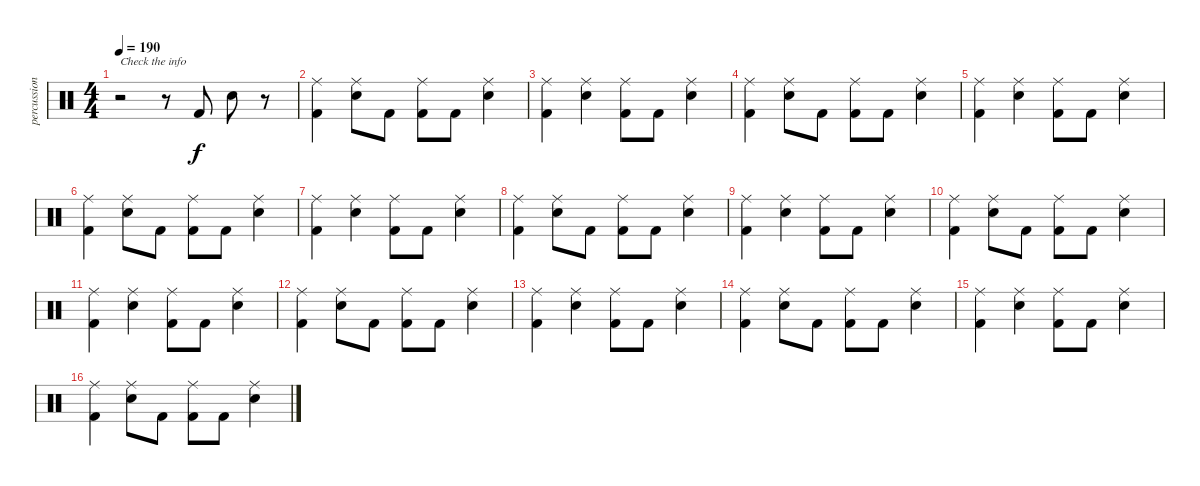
\track ("percussion" "percussion") {instrument percussion}
\staff {score}
\articulation defaults
\ts (4 4)
\tempo 190
\clef neutral
\ks c
r.2{txt "Check the info" dy f} r.8 "Kick (hit) 2".8 "Snare (hit) 2".8 r.8 |
("Ride (middle)" "Kick (hit) 2").4 ("Ride (middle)" "Snare (hit) 2").8 "Kick (hit) 2".8 ("Ride (middle)" "Kick (hit) 2").8 "Kick (hit) 2".8 ("Ride (middle)" "Snare (hit) 2").4 |
("Ride (middle)" "Kick (hit) 2").4 ("Ride (middle)" "Snare (hit) 2").4 ("Ride (middle)" "Kick (hit) 2").8 "Kick (hit) 2".8 ("Ride (middle)" "Snare (hit) 2").4 |
("Ride (middle)" "Kick (hit) 2").4 ("Ride (middle)" "Snare (hit) 2").8 "Kick (hit) 2".8 ("Ride (middle)" "Kick (hit) 2").8 "Kick (hit) 2".8 ("Ride (middle)" "Snare (hit) 2").4 |
("Ride (middle)" "Kick (hit) 2").4 ("Ride (middle)" "Snare (hit) 2").4 ("Ride (middle)" "Kick (hit) 2").8 "Kick (hit) 2".8 ("Ride (middle)" "Snare (hit) 2").4 |
("Ride (middle)" "Kick (hit) 2").4 ("Ride (middle)" "Snare (hit) 2").8 "Kick (hit) 2".8 ("Ride (middle)" "Kick (hit) 2").8 "Kick (hit) 2".8 ("Ride (middle)" "Snare (hit) 2").4 |
("Ride (middle)" "Kick (hit) 2").4 ("Ride (middle)" "Snare (hit) 2").4 ("Ride (middle)" "Kick (hit) 2").8 "Kick (hit) 2".8 ("Ride (middle)" "Snare (hit) 2").4 |
("Ride (middle)" "Kick (hit) 2").4 ("Ride (middle)" "Snare (hit) 2").8 "Kick (hit) 2".8 ("Ride (middle)" "Kick (hit) 2").8 "Kick (hit) 2".8 ("Ride (middle)" "Snare (hit) 2").4 |
("Ride (middle)" "Kick (hit) 2").4 ("Ride (middle)" "Snare (hit) 2").4 ("Ride (middle)" "Kick (hit) 2").8 "Kick (hit) 2".8 ("Ride (middle)" "Snare (hit) 2").4 |
("Ride (middle)" "Kick (hit) 2").4 ("Ride (middle)" "Snare (hit) 2").8 "Kick (hit) 2".8 ("Ride (middle)" "Kick (hit) 2").8 "Kick (hit) 2".8 ("Ride (middle)" "Snare (hit) 2").4 |
("Ride (middle)" "Kick (hit) 2").4 ("Ride (middle)" "Snare (hit) 2").4 ("Ride (middle)" "Kick (hit) 2").8 "Kick (hit) 2".8 ("Ride (middle)" "Snare (hit) 2").4 |
("Ride (middle)" "Kick (hit) 2").4 ("Ride (middle)" "Snare (hit) 2").8 "Kick (hit) 2".8 ("Ride (middle)" "Kick (hit) 2").8 "Kick (hit) 2".8 ("Ride (middle)" "Snare (hit) 2").4 |
("Ride (middle)" "Kick (hit) 2").4 ("Ride (middle)" "Snare (hit) 2").4 ("Ride (middle)" "Kick (hit) 2").8 "Kick (hit) 2".8 ("Ride (middle)" "Snare (hit) 2").4 |
("Ride (middle)" "Kick (hit) 2").4 ("Ride (middle)" "Snare (hit) 2").8 "Kick (hit) 2".8 ("Ride (middle)" "Kick (hit) 2").8 "Kick (hit) 2".8 ("Ride (middle)" "Snare (hit) 2").4 |
("Ride (middle)" "Kick (hit) 2").4 ("Ride (middle)" "Snare (hit) 2").4 ("Ride (middle)" "Kick (hit) 2").8 "Kick (hit) 2".8 ("Ride (middle)" "Snare (hit) 2").4 |
("Ride (middle)" "Kick (hit) 2").4 ("Ride (middle)" "Snare (hit) 2").8 "Kick (hit) 2".8 ("Ride (middle)" "Kick (hit) 2").8 "Kick (hit) 2".8 ("Ride (middle)" "Snare (hit) 2").4
